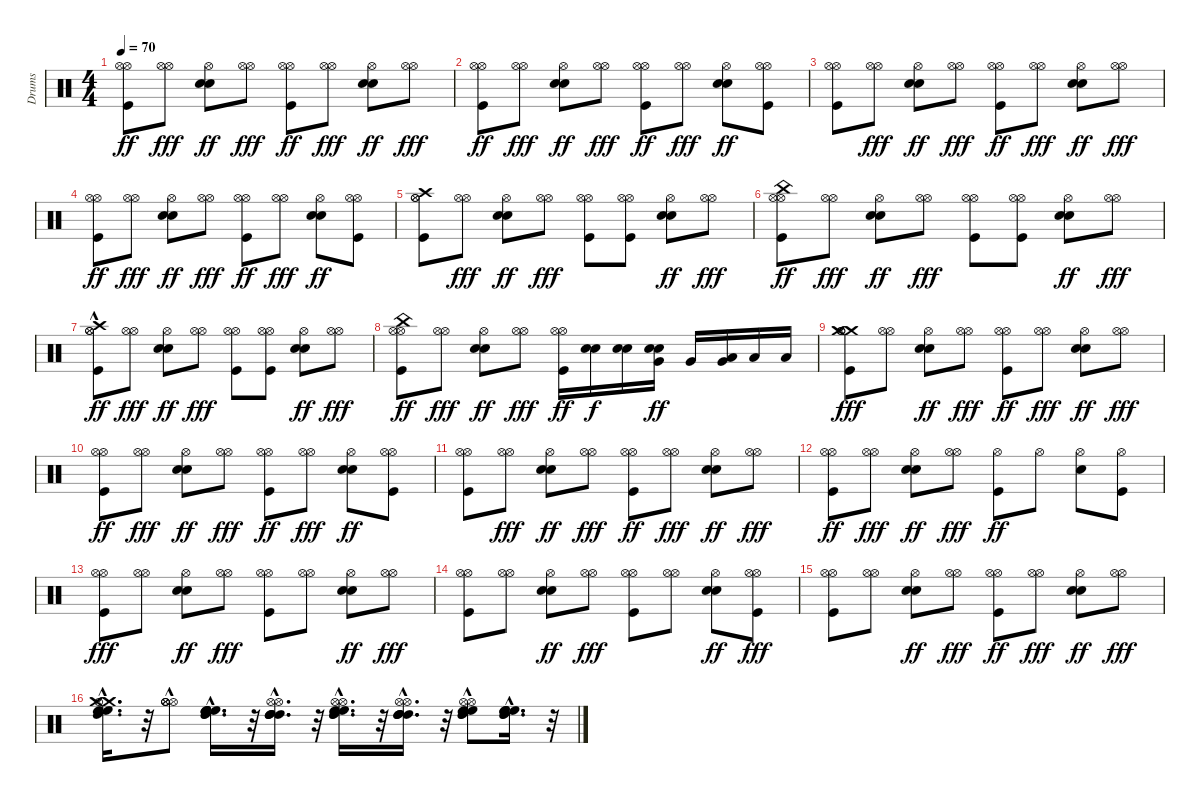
\track ("Drums" "Drums") {instrument percussion}
\staff {score}
\articulation defaults
\ts (4 4)
\tempo 70
\clef neutral
\ks c
("Hi-Hat (open)" "Hi-Hat (open)" "Kick (hit)").8{dy ff} ("Hi-Hat (open)" "Hi-Hat (open)").8{dy fff} ("Hi-Hat (open)" "Electric Snare (hit)" "Electric Snare (hit)").8{dy ff} ("Hi-Hat (open)" "Hi-Hat (open)").8{dy fff} ("Hi-Hat (open)" "Hi-Hat (open)" "Kick (hit)").8{dy ff} ("Hi-Hat (open)" "Hi-Hat (open)").8{dy fff} ("Hi-Hat (open)" "Electric Snare (hit)" "Electric Snare (hit)").8{dy ff} ("Hi-Hat (open)" "Hi-Hat (open)").8{dy fff} |
("Hi-Hat (open)" "Hi-Hat (open)" "Kick (hit)").8{dy ff} ("Hi-Hat (open)" "Hi-Hat (open)").8{dy fff} ("Electric Snare (hit)" "Electric Snare (hit)" "Hi-Hat (open)").8{dy ff} ("Hi-Hat (open)" "Hi-Hat (open)").8{dy fff} ("Hi-Hat (open)" "Hi-Hat (open)" "Kick (hit)").8{dy ff} ("Hi-Hat (open)" "Hi-Hat (open)").8{dy fff} ("Electric Snare (hit)" "Electric Snare (hit)" "Hi-Hat (open)").8{dy ff} ("Hi-Hat (open)" "Hi-Hat (open)" "Kick (hit)").8 |
("Hi-Hat (open)" "Hi-Hat (open)" "Kick (hit)").8 ("Hi-Hat (open)" "Hi-Hat (open)").8{dy fff} ("Hi-Hat (open)" "Electric Snare (hit)" "Electric Snare (hit)").8{dy ff} ("Hi-Hat (open)" "Hi-Hat (open)").8{dy fff} ("Hi-Hat (open)" "Hi-Hat (open)" "Kick (hit)").8{dy ff} ("Hi-Hat (open)" "Hi-Hat (open)").8{dy fff} ("Hi-Hat (open)" "Electric Snare (hit)" "Electric Snare (hit)").8{dy ff} ("Hi-Hat (open)" "Hi-Hat (open)").8{dy fff} |
("Hi-Hat (open)" "Hi-Hat (open)" "Kick (hit)").8{dy ff} ("Hi-Hat (open)" "Hi-Hat (open)").8{dy fff} ("Hi-Hat (open)" "Electric Snare (hit)" "Electric Snare (hit)").8{dy ff} ("Hi-Hat (open)" "Hi-Hat (open)").8{dy fff} ("Hi-Hat (open)" "Hi-Hat (open)" "Kick (hit)").8{dy ff} ("Hi-Hat (open)" "Hi-Hat (open)").8{dy fff} ("Hi-Hat (open)" "Electric Snare (hit)" "Electric Snare (hit)").8{dy ff} ("Hi-Hat (open)" "Hi-Hat (open)" "Kick (hit)").8 |
("Kick (hit)" "Hi-Hat (open)" "Hi-Hat (open)" "Crash high (hit)").8 ("Hi-Hat (open)" "Hi-Hat (open)").8{dy fff} ("Hi-Hat (open)" "Electric Snare (hit)" "Electric Snare (hit)").8{dy ff} ("Hi-Hat (open)" "Hi-Hat (open)").8{dy fff} ("Kick (hit)" "Hi-Hat (open)" "Hi-Hat (open)").8 ("Kick (hit)" "Hi-Hat (open)" "Hi-Hat (open)").8 ("Hi-Hat (open)" "Electric Snare (hit)" "Electric Snare (hit)").8{dy ff} ("Hi-Hat (open)" "Hi-Hat (open)").8{dy fff} |
("Kick (hit)" "Hi-Hat (open)" "Hi-Hat (open)" "China (hit)").8{dy ff} ("Hi-Hat (open)" "Hi-Hat (open)").8{dy fff} ("Hi-Hat (open)" "Electric Snare (hit)" "Electric Snare (hit)").8{dy ff} ("Hi-Hat (open)" "Hi-Hat (open)").8{dy fff} ("Kick (hit)" "Hi-Hat (open)" "Hi-Hat (open)").8 ("Kick (hit)" "Hi-Hat (open)" "Hi-Hat (open)").8 ("Hi-Hat (open)" "Electric Snare (hit)" "Electric Snare (hit)").8{dy ff} ("Hi-Hat (open)" "Hi-Hat (open)").8{dy fff} |
("Kick (hit)" "Hi-Hat (open)" "Hi-Hat (open)" "Crash high (hit)"{hac}).8{dy ff} ("Hi-Hat (open)" "Hi-Hat (open)").8{dy fff} ("Hi-Hat (open)" "Electric Snare (hit)" "Electric Snare (hit)").8{dy ff} ("Hi-Hat (open)" "Hi-Hat (open)").8{dy fff} ("Kick (hit)" "Hi-Hat (open)" "Hi-Hat (open)").8 ("Kick (hit)" "Hi-Hat (open)" "Hi-Hat (open)").8 ("Hi-Hat (open)" "Electric Snare (hit)" "Electric Snare (hit)").8{dy ff} ("Hi-Hat (open)" "Hi-Hat (open)").8{dy fff} |
("Hi-Hat (open)" "Hi-Hat (open)" "Kick (hit)" "China (hit)").8{dy ff} ("Hi-Hat (open)" "Hi-Hat (open)").8{dy fff} ("Hi-Hat (open)" "Electric Snare (hit)" "Electric Snare (hit)").8{dy ff} ("Hi-Hat (open)" "Hi-Hat (open)").8{dy fff} ("Hi-Hat (open)" "Hi-Hat (open)" "Kick (hit)").16{dy ff} ("Electric Snare (hit)" "Electric Snare (hit)").16{dy f} ("Electric Snare (hit)" "Electric Snare (hit)").16 ("Very Low Tom (hit)" "Electric Snare (hit)" "Electric Snare (hit)").16{dy ff} "Very Low Tom (hit)".16 ("Very Low Tom (hit)" "Low Floor Tom (hit)").16 "Low Floor Tom (hit)".16 "Low Floor Tom (hit)".16 |
("Crash medium (hit)" "Crash medium (hit)" "Kick (hit)" "Hi-Hat (open)" "Hi-Hat (open)").8{dy fff} ("Hi-Hat (open)" "Hi-Hat (open)").8 ("Hi-Hat (open)" "Electric Snare (hit)" "Electric Snare (hit)").8{dy ff} ("Hi-Hat (open)" "Hi-Hat (open)").8{dy fff} ("Hi-Hat (open)" "Hi-Hat (open)" "Kick (hit)").8{dy ff} ("Hi-Hat (open)" "Hi-Hat (open)").8{dy fff} ("Hi-Hat (open)" "Electric Snare (hit)" "Electric Snare (hit)").8{dy ff} ("Hi-Hat (open)" "Hi-Hat (open)").8{dy fff} |
("Hi-Hat (open)" "Hi-Hat (open)" "Kick (hit)").8{dy ff} ("Hi-Hat (open)" "Hi-Hat (open)").8{dy fff} ("Hi-Hat (open)" "Electric Snare (hit)" "Electric Snare (hit)").8{dy ff} ("Hi-Hat (open)" "Hi-Hat (open)").8{dy fff} ("Hi-Hat (open)" "Hi-Hat (open)" "Kick (hit)").8{dy ff} ("Hi-Hat (open)" "Hi-Hat (open)").8{dy fff} ("Hi-Hat (open)" "Electric Snare (hit)" "Electric Snare (hit)").8{dy ff} ("Hi-Hat (open)" "Hi-Hat (open)" "Kick (hit)").8 |
("Hi-Hat (open)" "Hi-Hat (open)" "Kick (hit)").8 ("Hi-Hat (open)" "Hi-Hat (open)").8{dy fff} ("Hi-Hat (open)" "Electric Snare (hit)" "Electric Snare (hit)").8{dy ff} ("Hi-Hat (open)" "Hi-Hat (open)").8{dy fff} ("Hi-Hat (open)" "Hi-Hat (open)" "Kick (hit)").8{dy ff} ("Hi-Hat (open)" "Hi-Hat (open)").8{dy fff} ("Hi-Hat (open)" "Electric Snare (hit)" "Electric Snare (hit)").8{dy ff} ("Hi-Hat (open)" "Hi-Hat (open)").8{dy fff} |
("Hi-Hat (open)" "Hi-Hat (open)" "Kick (hit)").8{dy ff} ("Hi-Hat (open)" "Hi-Hat (open)").8{dy fff} ("Hi-Hat (open)" "Electric Snare (hit)" "Electric Snare (hit)").8{dy ff} ("Hi-Hat (open)" "Hi-Hat (open)").8{dy fff} ("Hi-Hat (open)" "Kick (hit)").8{dy ff} "Hi-Hat (open)".8 ("Hi-Hat (open)" "Electric Snare (hit)").8 ("Hi-Hat (open)" "Kick (hit)").8 |
("Kick (hit)" "Hi-Hat (open)" "Hi-Hat (open)").8{dy fff} ("Hi-Hat (open)" "Hi-Hat (open)").8 ("Hi-Hat (open)" "Electric Snare (hit)" "Electric Snare (hit)").8{dy ff} ("Hi-Hat (open)" "Hi-Hat (open)").8{dy fff} ("Kick (hit)" "Hi-Hat (open)" "Hi-Hat (open)").8 ("Hi-Hat (open)" "Hi-Hat (open)").8 ("Hi-Hat (open)" "Electric Snare (hit)" "Electric Snare (hit)").8{dy ff} ("Hi-Hat (open)" "Hi-Hat (open)").8{dy fff} |
("Kick (hit)" "Hi-Hat (open)" "Hi-Hat (open)").8 ("Hi-Hat (open)" "Hi-Hat (open)").8 ("Hi-Hat (open)" "Electric Snare (hit)" "Electric Snare (hit)").8{dy ff} ("Hi-Hat (open)" "Hi-Hat (open)").8{dy fff} ("Kick (hit)" "Hi-Hat (open)" "Hi-Hat (open)").8 ("Hi-Hat (open)" "Hi-Hat (open)").8 ("Hi-Hat (open)" "Electric Snare (hit)" "Electric Snare (hit)").8{dy ff} ("Kick (hit)" "Hi-Hat (open)" "Hi-Hat (open)").8{dy fff} |
("Kick (hit)" "Hi-Hat (open)" "Hi-Hat (open)").8 ("Hi-Hat (open)" "Hi-Hat (open)").8 ("Hi-Hat (open)" "Electric Snare (hit)" "Electric Snare (hit)").8{dy ff} ("Hi-Hat (open)" "Hi-Hat (open)").8{dy fff} ("Hi-Hat (open)" "Hi-Hat (open)" "Kick (hit)").8{dy ff} ("Hi-Hat (open)" "Hi-Hat (open)").8{dy fff} ("Hi-Hat (open)" "Electric Snare (hit)" "Electric Snare (hit)").8{dy ff} ("Hi-Hat (open)" "Hi-Hat (open)").8{dy fff} |
("Crash medium (hit)"{hac} "High Floor Tom (hit)"{hac} "Crash medium (hit)"{hac} "High Floor Tom (hit)"{hac} "High Tom (hit)"{hac} "Hi-Hat (open)"{hac}).16{d} r.32 ("Hi-Hat (open)"{hac} "Hi-Hat (open)"{hac} "Hi-Hat (open)"{hac} "Hi-Hat (open)"{hac}).8 ("High Floor Tom (hit)"{hac} "High Floor Tom (hit)"{hac} "High Floor Tom (hit)"{hac} "High Floor Tom (hit)"{hac} "High Tom (hit)"{hac} "High Tom (hit)"{hac}).16{d} r.32 ("High Tom (hit)"{hac} "High Tom (hit)"{hac} "High Tom (hit)"{hac} "High Tom (hit)"{hac} "Hi-Hat (open)"{hac} "Hi-Hat (open)"{hac}).16{d} r.32 ("High Floor Tom (hit)"{hac} "High Floor Tom (hit)"{hac} "High Tom (hit)"{hac} "High Tom (hit)"{hac} "Hi-Hat (open)"{hac} "Hi-Hat (open)"{hac}).16{d} r.32 ("High Tom (hit)"{hac} "High Tom (hit)"{hac} "High Tom (hit)"{hac} "High Tom (hit)"{hac} "Hi-Hat (open)"{hac} "Hi-Hat (open)"{hac}).16{d} r.32 ("High Floor Tom (hit)"{hac} "High Floor Tom (hit)"{hac} "High Tom (hit)"{hac} "High Tom (hit)"{hac} "Hi-Hat (open)"{hac} "Hi-Hat (open)"{hac}).8 ("High Floor Tom (hit)"{hac} "High Floor Tom (hit)"{hac} "High Floor Tom (hit)"{hac} "High Floor Tom (hit)"{hac} "High Tom (hit)"{hac} "High Tom (hit)"{hac}).16{d} r.32
